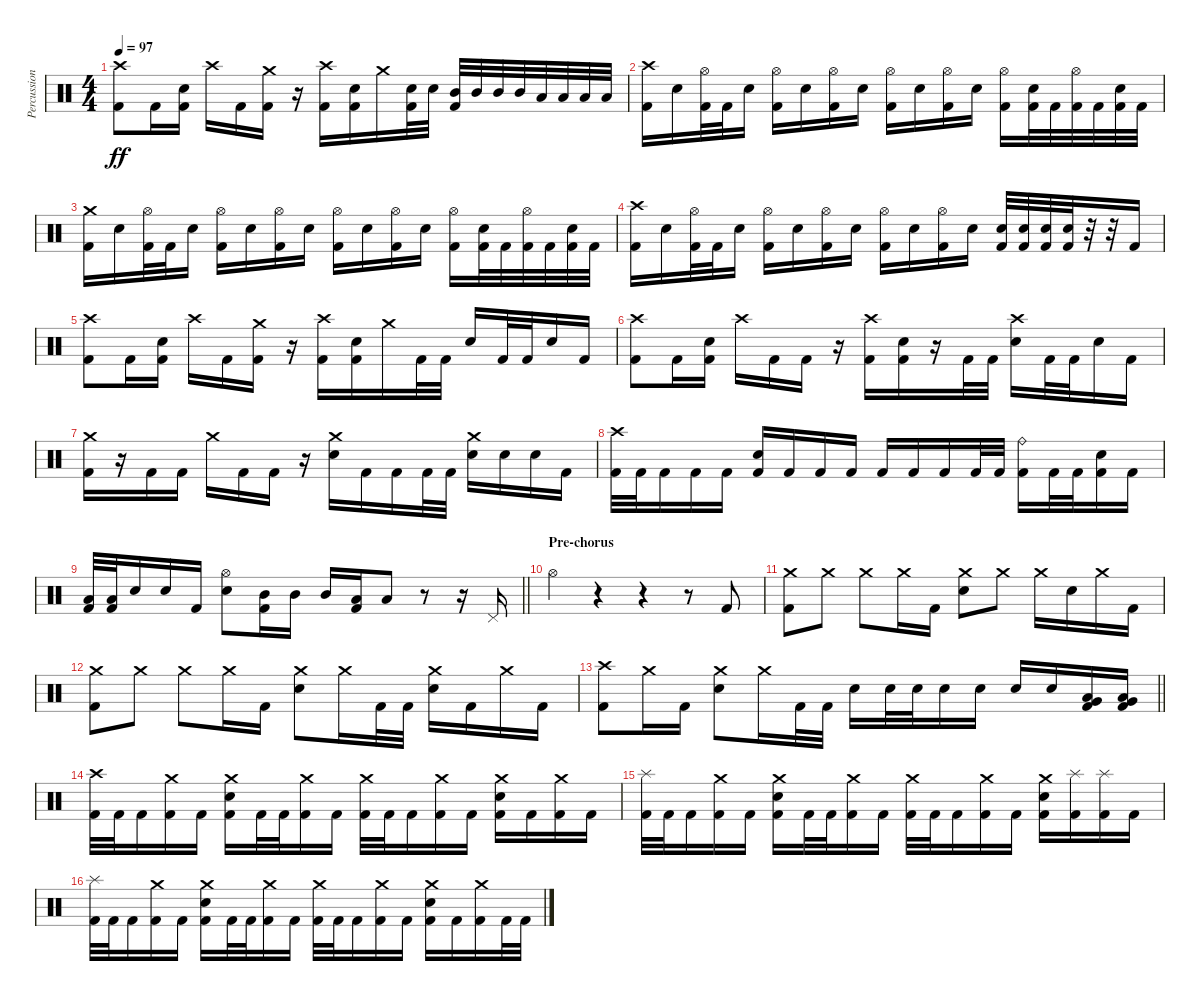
\track ("Percussion" "Percussion") {instrument percussion}
\staff {score}
\articulation defaults
\ts (4 4)
\tempo 97
\clef neutral
\ks c
("Crash high (hit)" "Kick (hit) 2").8{dy ff} "Kick (hit) 2".16 ("Electric Snare (hit)" "Kick (hit) 2").16 "Crash high (hit)".16 "Kick (hit) 2".16 ("Crash medium (hit)" "Kick (hit) 2").16 r.16 ("Crash high (hit)" "Kick (hit) 2").16 ("Electric Snare (hit)" "Kick (hit) 2").16 "Crash medium (hit)".16 ("Electric Snare (hit)" "Kick (hit) 2").32 "Electric Snare (hit)".32 ("Mid Tom (hit)" "Kick (hit) 2").32 "Mid Tom (hit)".32 "Mid Tom (hit)".32 "Mid Tom (hit)".32 "Low Tom (hit)".32 "Low Tom (hit)".32 "Low Tom (hit)".32 "Low Tom (hit)".32 |
("Crash high (hit)" "Kick (hit) 2").16 "Electric Snare (hit)".16 ("Hi-Hat (open)" "Kick (hit) 2").32 "Kick (hit) 2".32 "Electric Snare (hit)".16 ("Hi-Hat (open)" "Kick (hit) 2").16 "Electric Snare (hit)".16 ("Hi-Hat (open)" "Kick (hit) 2").16 "Electric Snare (hit)".16 ("Hi-Hat (open)" "Kick (hit) 2").16 "Electric Snare (hit)".16 ("Hi-Hat (open)" "Kick (hit) 2").16 "Electric Snare (hit)".16 ("Hi-Hat (open)" "Kick (hit) 2").16 ("Electric Snare (hit)" "Kick (hit) 2").32 "Kick (hit) 2".32 ("Hi-Hat (open)" "Kick (hit) 2").32 "Kick (hit) 2".32 ("Electric Snare (hit)" "Kick (hit) 2").32 "Kick (hit) 2".32 |
("Crash medium (hit)" "Kick (hit) 2").16 "Electric Snare (hit)".16 ("Hi-Hat (open)" "Kick (hit) 2").32 "Kick (hit) 2".32 "Electric Snare (hit)".16 ("Hi-Hat (open)" "Kick (hit) 2").16 "Electric Snare (hit)".16 ("Hi-Hat (open)" "Kick (hit) 2").16 "Electric Snare (hit)".16 ("Hi-Hat (open)" "Kick (hit) 2").16 "Electric Snare (hit)".16 ("Hi-Hat (open)" "Kick (hit) 2").16 "Electric Snare (hit)".16 ("Hi-Hat (open)" "Kick (hit) 2").16 ("Electric Snare (hit)" "Kick (hit) 2").32 "Kick (hit) 2".32 ("Hi-Hat (open)" "Kick (hit) 2").32 "Kick (hit) 2".32 ("Electric Snare (hit)" "Kick (hit) 2").32 "Kick (hit) 2".32 |
("Crash high (hit)" "Kick (hit) 2").16 "Electric Snare (hit)".16 ("Hi-Hat (open)" "Kick (hit) 2").32 "Kick (hit) 2".32 "Electric Snare (hit)".16 ("Hi-Hat (open)" "Kick (hit) 2").16 "Electric Snare (hit)".16 ("Hi-Hat (open)" "Kick (hit) 2").16 "Electric Snare (hit)".16 ("Hi-Hat (open)" "Kick (hit) 2").16 "Electric Snare (hit)".16 ("Hi-Hat (open)" "Kick (hit) 2").16 "Electric Snare (hit)".16 ("Electric Snare (hit)" "Kick (hit) 2").32 ("Electric Snare (hit)" "Kick (hit) 2").32 ("Electric Snare (hit)" "Kick (hit) 2").32 ("Electric Snare (hit)" "Kick (hit) 2").32 r.32 r.32 "Kick (hit) 2".16 |
("Crash high (hit)" "Kick (hit) 2").8 "Kick (hit) 2".16 ("Electric Snare (hit)" "Kick (hit) 2").16 "Crash high (hit)".16 "Kick (hit) 2".16 ("Crash medium (hit)" "Kick (hit) 2").16 r.16 ("Crash high (hit)" "Kick (hit) 2").16 ("Electric Snare (hit)" "Kick (hit) 2").16 "Crash medium (hit)".16 "Kick (hit) 2".32 "Kick (hit) 2".32 "Electric Snare (hit)".16 "Kick (hit) 2".32 "Kick (hit) 2".32 "Electric Snare (hit)".16 "Kick (hit) 2".16 |
("Crash high (hit)" "Kick (hit) 2").8 "Kick (hit) 2".16 ("Electric Snare (hit)" "Kick (hit) 2").16 "Crash high (hit)".16 "Kick (hit) 2".16 "Kick (hit) 2".16 r.16 ("Crash high (hit)" "Kick (hit) 2").16 ("Electric Snare (hit)" "Kick (hit) 2").16 r.16 "Kick (hit) 2".32 "Kick (hit) 2".32 ("Crash high (hit)" "Electric Snare (hit)").16 "Kick (hit) 2".32 "Kick (hit) 2".32 "Electric Snare (hit)".16 "Kick (hit) 2".16 |
("Crash medium (hit)" "Kick (hit) 2").16 r.16 "Kick (hit) 2".16 "Kick (hit) 2".16 "Crash medium (hit)".16 "Kick (hit) 2".16 "Kick (hit) 2".16 r.16 ("Crash medium (hit)" "Electric Snare (hit)").16 "Kick (hit) 2".16 "Kick (hit) 2".16 "Kick (hit) 2".32 "Kick (hit) 2".32 ("Crash medium (hit)" "Electric Snare (hit)").16 "Electric Snare (hit)".16 "Electric Snare (hit)".16 "Kick (hit) 2".16 |
("Crash high (hit)" "Kick (hit) 2").32 "Kick (hit) 2".32 "Kick (hit) 2".16 "Kick (hit) 2".16 "Kick (hit) 2".16 ("Electric Snare (hit)" "Kick (hit) 2").16 "Kick (hit) 2".16 "Kick (hit) 2".16 "Kick (hit) 2".16 "Kick (hit) 2".16 "Kick (hit) 2".16 "Kick (hit) 2".16 "Kick (hit) 2".32 "Kick (hit) 2".32 ("Ride (bell)" "Kick (hit) 2").16 "Kick (hit) 2".32 "Kick (hit) 2".32 ("Electric Snare (hit)" "Kick (hit) 2").16 "Kick (hit) 2".16 |
\barLineRight lightlight
("Low Tom (hit)" "Kick (hit) 2").32 ("Low Tom (hit)" "Kick (hit) 2").32 "Electric Snare (hit)".16 "Electric Snare (hit)".16 "Kick (hit) 2".16 ("Hi-Hat (open)" "Electric Snare (hit)").8 ("Mid Tom (hit)" "Kick (hit) 2").16 "Mid Tom (hit)".16 "Mid Tom (hit)".16 ("Low Tom (hit)" "Kick (hit) 2").16 "Low Tom (hit)".8 r.8 r.16 "Pedal Hi-Hat (hit)".16 |
\section ("" "Pre-chorus")
"Hi-Hat (open)".4 r.4 r.4 r.8 "Kick (hit) 2".8 |
("Crash medium (hit)" "Kick (hit) 2").8 "Crash medium (hit)".8 "Crash medium (hit)".8 "Crash medium (hit)".16 "Kick (hit) 2".16 ("Crash medium (hit)" "Electric Snare (hit)").8 "Crash medium (hit)".8 "Crash medium (hit)".16 "Electric Snare (hit)".16 "Crash medium (hit)".16 "Kick (hit) 2".16 |
("Crash medium (hit)" "Kick (hit) 2").8 "Crash medium (hit)".8 "Crash medium (hit)".8 "Crash medium (hit)".16 "Kick (hit) 2".16 ("Crash medium (hit)" "Electric Snare (hit)").8 "Crash medium (hit)".16 "Kick (hit) 2".32 "Kick (hit) 2".32 ("Crash medium (hit)" "Electric Snare (hit)").16 "Kick (hit) 2".16 "Crash medium (hit)".16 "Kick (hit) 2".16 |
\barLineRight lightlight
("Crash high (hit)" "Kick (hit) 2").8 "Crash medium (hit)".16 "Kick (hit) 2".16 ("Crash medium (hit)" "Electric Snare (hit)").8 "Crash medium (hit)".16 "Kick (hit) 2".32 "Kick (hit) 2".32 "Electric Snare (hit)".16 "Electric Snare (hit)".32 "Electric Snare (hit)".32 "Electric Snare (hit)".16 "Electric Snare (hit)".16 "Electric Snare (hit)".16 "Electric Snare (hit)".16 ("Low Floor Tom (hit)" "Very Low Tom (hit)" "Kick (hit) 2").16 ("Very Low Tom (hit)" "Low Floor Tom (hit)" "Kick (hit) 2").16 |
("Crash high (hit)" "Kick (hit) 2").32 "Kick (hit) 2".32 "Kick (hit) 2".16 ("Crash medium (hit)" "Kick (hit) 2").16 "Kick (hit) 2".16 ("Crash medium (hit)" "Electric Snare (hit)" "Kick (hit) 2").16 "Kick (hit) 2".32 "Kick (hit) 2".32 ("Crash medium (hit)" "Kick (hit) 2").16 "Kick (hit) 2".16 ("Crash medium (hit)" "Kick (hit) 2").32 "Kick (hit) 2".32 "Kick (hit) 2".16 ("Crash medium (hit)" "Kick (hit) 2").16 "Kick (hit) 2".16 ("Crash medium (hit)" "Electric Snare (hit)" "Kick (hit) 2").16 "Kick (hit) 2".16 ("Crash medium (hit)" "Kick (hit) 2").16 "Kick (hit) 2".16 |
("Splash (hit)" "Kick (hit) 2").32 "Kick (hit) 2".32 "Kick (hit) 2".16 ("Crash medium (hit)" "Kick (hit) 2").16 "Kick (hit) 2".16 ("Crash medium (hit)" "Electric Snare (hit)" "Kick (hit) 2").16 "Kick (hit) 2".32 "Kick (hit) 2".32 ("Crash medium (hit)" "Kick (hit) 2").16 "Kick (hit) 2".16 ("Crash medium (hit)" "Kick (hit) 2").32 "Kick (hit) 2".32 "Kick (hit) 2".16 ("Crash medium (hit)" "Kick (hit) 2").16 "Kick (hit) 2".16 ("Crash medium (hit)" "Electric Snare (hit)" "Kick (hit) 2").16 ("Splash (hit)" "Kick (hit) 2").16 ("Splash (hit)" "Kick (hit) 2").16 "Kick (hit) 2".16 |
("Splash (hit)" "Kick (hit) 2").32 "Kick (hit) 2".32 "Kick (hit) 2".16 ("Crash medium (hit)" "Kick (hit) 2").16 "Kick (hit) 2".16 ("Crash medium (hit)" "Electric Snare (hit)" "Kick (hit) 2").16 "Kick (hit) 2".32 "Kick (hit) 2".32 ("Crash medium (hit)" "Kick (hit) 2").16 "Kick (hit) 2".16 ("Crash medium (hit)" "Kick (hit) 2").32 "Kick (hit) 2".32 "Kick (hit) 2".16 ("Crash medium (hit)" "Kick (hit) 2").16 "Kick (hit) 2".16 ("Crash medium (hit)" "Electric Snare (hit)" "Kick (hit) 2").16 "Kick (hit) 2".16 ("Crash medium (hit)" "Kick (hit) 2").16 "Kick (hit) 2".32 "Kick (hit) 2".32
